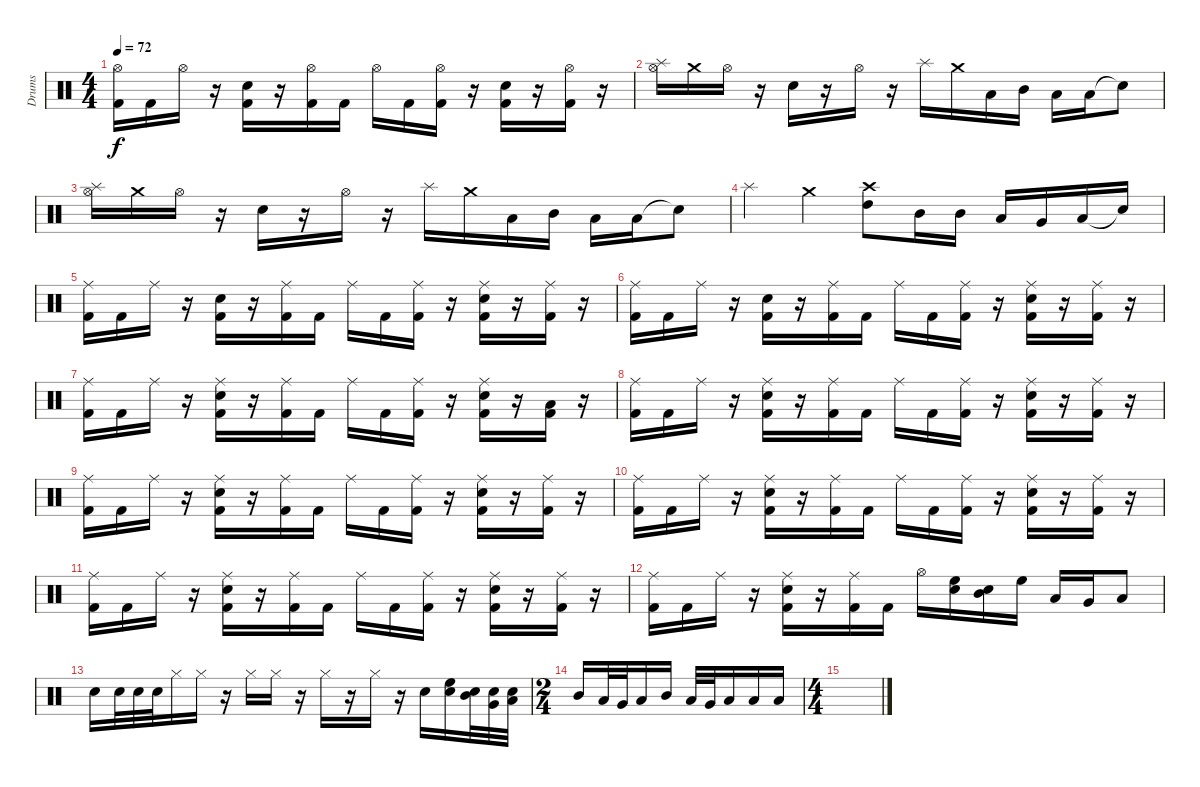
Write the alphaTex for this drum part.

\track ("Drums" "Drums") {instrument percussion}
\staff {score}
\articulation defaults
\ts (4 4)
\tempo 72
\clef neutral
\ks c
("Hi-Hat (open)" "Kick (hit) 2").16{dy f} "Kick (hit) 2".16 "Hi-Hat (open)".16 r.16 ("Snare (hit) 2" "Kick (hit) 2").16 r.16 ("Hi-Hat (open)" "Kick (hit) 2").16 "Kick (hit) 2".16 "Hi-Hat (open)".16 "Kick (hit) 2".16 ("Hi-Hat (open)" "Kick (hit) 2").16 r.16 ("Snare (hit) 2" "Kick (hit) 2").16 r.16 ("Hi-Hat (open)" "Kick (hit) 2").16 r.16 |
("Splash (hit)" "Hi-Hat (open)").16 "Crash medium (hit)".16 "Hi-Hat (open)".16 r.16 "Snare (hit) 2".16 r.16 "Hi-Hat (open)".16 r.16 "Splash (hit)".16 "Crash medium (hit)".16 "Low Tom (hit)".16 "Mid Tom (hit)".16 "Low Tom (hit)".16 "Low Tom (hit)".16 "Snare (hit)"{t}.8 |
("Splash (hit)" "Hi-Hat (open)").16 "Crash medium (hit)".16 "Hi-Hat (open)".16 r.16 "Snare (hit) 2".16 r.16 "Hi-Hat (open)".16 r.16 "Splash (hit)".16 "Crash medium (hit)".16 "Low Tom (hit)".16 "Mid Tom (hit)".16 "Low Tom (hit)".16 "Low Tom (hit)".16 "Snare (hit)"{t}.8 |
"Splash (hit)".4 "Crash medium (hit)".4 ("Crash high (hit)" "High Tom (hit)").8 "Mid Tom (hit)".16 "Mid Tom (hit)".16 "Low Tom (hit)".16 "Very Low Tom (hit)".16 "Low Floor Tom (hit)".16 "Snare (hit)"{t}.16 |
("Ride (middle)" "Kick (hit) 2").16 "Kick (hit) 2".16 "Ride (middle)".16 r.16 ("Snare (hit) 2" "Kick (hit) 2").16 r.16 ("Ride (middle)" "Kick (hit) 2").16 "Kick (hit) 2".16 "Ride (middle)".16 "Kick (hit) 2".16 ("Ride (middle)" "Kick (hit) 2").16 r.16 ("Ride (middle)" "Snare (hit) 2" "Kick (hit) 2").16 r.16 ("Ride (middle)" "Kick (hit) 2").16 r.16 |
("Ride (middle)" "Kick (hit) 2").16 "Kick (hit) 2".16 "Ride (middle)".16 r.16 ("Snare (hit) 2" "Kick (hit) 2").16 r.16 ("Ride (middle)" "Kick (hit) 2").16 "Kick (hit) 2".16 "Ride (middle)".16 "Kick (hit) 2".16 ("Ride (middle)" "Kick (hit) 2").16 r.16 ("Ride (middle)" "Snare (hit) 2" "Kick (hit) 2").16 r.16 ("Ride (middle)" "Kick (hit) 2").16 r.16 |
("Ride (middle)" "Kick (hit) 2").16 "Kick (hit) 2".16 "Ride (middle)".16 r.16 ("Ride (middle)" "Snare (hit) 2" "Kick (hit) 2").16 r.16 ("Ride (middle)" "Kick (hit) 2").16 "Kick (hit) 2".16 "Ride (middle)".16 "Kick (hit) 2".16 ("Ride (middle)" "Kick (hit) 2").16 r.16 ("Ride (middle)" "Snare (hit) 2" "Kick (hit) 2").16 r.16 ("Low Floor Tom (hit)" "Kick (hit) 2").16 r.16 |
("Ride (middle)" "Kick (hit) 2").16 "Kick (hit) 2".16 "Ride (middle)".16 r.16 ("Ride (middle)" "Snare (hit) 2" "Kick (hit) 2").16 r.16 ("Ride (middle)" "Kick (hit) 2").16 "Kick (hit) 2".16 "Ride (middle)".16 "Kick (hit) 2".16 ("Ride (middle)" "Kick (hit) 2").16 r.16 ("Ride (middle)" "Snare (hit) 2" "Kick (hit) 2").16 r.16 ("Ride (middle)" "Kick (hit) 2").16 r.16 |
("Ride (middle)" "Kick (hit) 2").16 "Kick (hit) 2".16 "Ride (middle)".16 r.16 ("Ride (middle)" "Snare (hit) 2" "Kick (hit) 2").16 r.16 ("Ride (middle)" "Kick (hit) 2").16 "Kick (hit) 2".16 "Ride (middle)".16 "Kick (hit) 2".16 ("Ride (middle)" "Kick (hit) 2").16 r.16 ("Ride (middle)" "Snare (hit) 2" "Kick (hit) 2").16 r.16 ("Ride (middle)" "Kick (hit) 2").16 r.16 |
("Ride (middle)" "Kick (hit) 2").16 "Kick (hit) 2".16 "Ride (middle)".16 r.16 ("Ride (middle)" "Snare (hit) 2" "Kick (hit) 2").16 r.16 ("Ride (middle)" "Kick (hit) 2").16 "Kick (hit) 2".16 "Ride (middle)".16 "Kick (hit) 2".16 ("Ride (middle)" "Kick (hit) 2").16 r.16 ("Ride (middle)" "Snare (hit) 2" "Kick (hit) 2").16 r.16 ("Ride (middle)" "Kick (hit) 2").16 r.16 |
("Ride (middle)" "Kick (hit) 2").16 "Kick (hit) 2".16 "Ride (middle)".16 r.16 ("Ride (middle)" "Snare (hit) 2" "Kick (hit) 2").16 r.16 ("Ride (middle)" "Kick (hit) 2").16 "Kick (hit) 2".16 "Ride (middle)".16 "Kick (hit) 2".16 ("Ride (middle)" "Kick (hit) 2").16 r.16 ("Ride (middle)" "Snare (hit) 2" "Kick (hit) 2").16 r.16 ("Ride (middle)" "Kick (hit) 2").16 r.16 |
("Ride (middle)" "Kick (hit) 2").16 "Kick (hit) 2".16 "Ride (middle)".16 r.16 ("Ride (middle)" "Snare (hit) 2" "Kick (hit) 2").16 r.16 ("Ride (middle)" "Kick (hit) 2").16 "Kick (hit) 2".16 "Hi-Hat (open)".16 ("Snare (hit) 2" "High Floor Tom (hit)").16 ("Snare (hit) 2" "Mid Tom (hit)").16 "High Floor Tom (hit)".16 "Low Tom (hit)".16 "Very Low Tom (hit)".16 "Low Floor Tom (hit)".8 |
"Snare (hit) 2".16 "Snare (hit) 2".32 "Snare (hit) 2".32 "Snare (hit) 2".32 "Hi-Hat (closed)".16 "Hi-Hat (closed)".16 r.16 "Hi-Hat (closed)".16 "Hi-Hat (closed)".16 r.16 "Hi-Hat (closed)".16 r.16 "Hi-Hat (closed)".16 r.16 "Snare (hit) 2".16 ("Snare (hit) 2" "High Floor Tom (hit)").16 ("Snare (hit) 2" "Mid Tom (hit)").32 ("Snare (hit) 2" "Very Low Tom (hit)").32 ("Snare (hit) 2" "Low Floor Tom (hit)").32 |
\ts (2 4)
"Mid Tom (hit)".16 "Low Tom (hit)".32 "Very Low Tom (hit)".32 "Low Floor Tom (hit)".16 "Mid Tom (hit)".16 "Low Tom (hit)".32 "Very Low Tom (hit)".32 "Low Floor Tom (hit)".16 "Low Floor Tom (hit)".16 "Low Floor Tom (hit)".16 |
\ts (4 4)
